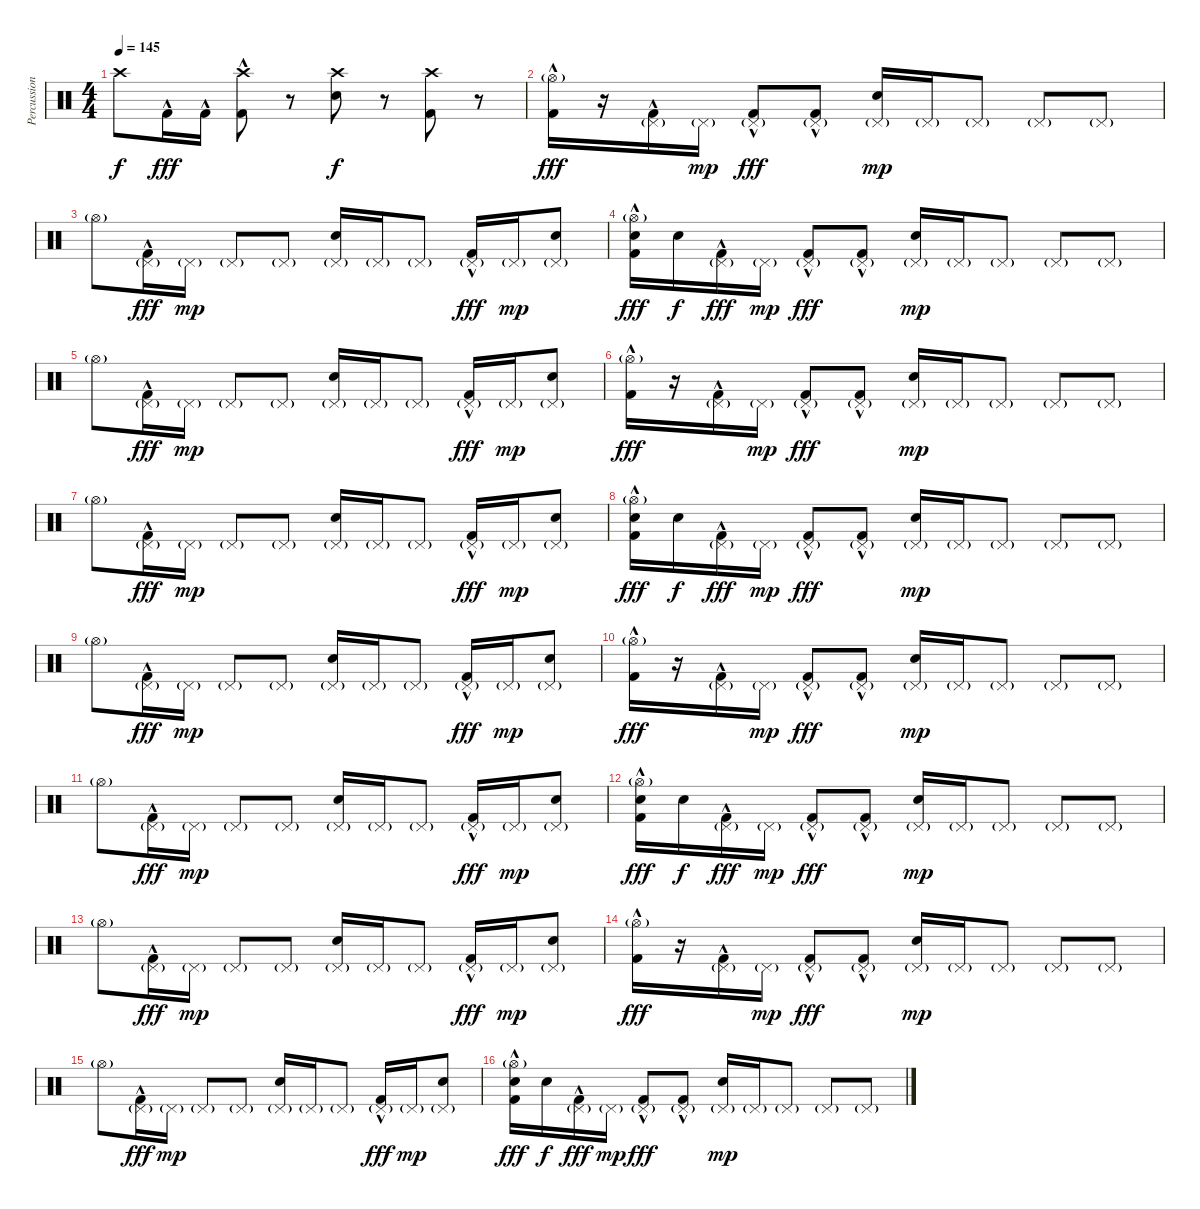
\track ("Percussion" "Percussion") {instrument percussion}
\staff {score}
\articulation defaults
\ts (4 4)
\tempo 145
\clef neutral
\ks c "Crash high (hit)".8{dy f} "Kick (hit) 2"{hac}.16{dy fff} "Kick (hit) 2"{hac}.16
("Crash high (hit)" "Kick (hit) 2"{hac}).8 r.8 ("Crash high (hit)" "Snare (hit) 2").8{dy f} r.8 ("Crash high (hit)" "Kick (hit) 2").8 r.8{volume 0} |
("Hi-Hat (open)"{g} "Kick (hit) 2"{hac}).16{dy fff volume 10} r.16 ("Pedal Hi-Hat (hit)"{g} "Kick (hit) 2"{hac}).16 "Pedal Hi-Hat (hit)"{g}.16{dy mp} ("Pedal Hi-Hat (hit)"{g} "Kick (hit) 2"{hac}).8{dy fff} ("Pedal Hi-Hat (hit)"{g} "Kick (hit) 2"{hac}).8 ("Pedal Hi-Hat (hit)"{g} "Snare (hit) 2").16{dy mp} "Pedal Hi-Hat (hit)"{g}.16 "Pedal Hi-Hat (hit)"{g}.8 "Pedal Hi-Hat (hit)"{g}.8 "Pedal Hi-Hat (hit)"{g}.8 |
"Hi-Hat (open)"{g}.8 ("Pedal Hi-Hat (hit)"{g} "Kick (hit) 2"{hac}).16{dy fff} "Pedal Hi-Hat (hit)"{g}.16{dy mp} "Pedal Hi-Hat (hit)"{g}.8 "Pedal Hi-Hat (hit)"{g}.8 ("Pedal Hi-Hat (hit)"{g} "Snare (hit) 2").16 "Pedal Hi-Hat (hit)"{g}.16 "Pedal Hi-Hat (hit)"{g}.8 ("Pedal Hi-Hat (hit)"{g} "Kick (hit) 2"{hac}).16{dy fff} "Pedal Hi-Hat (hit)"{g}.16{dy mp} ("Pedal Hi-Hat (hit)"{g} "Snare (hit) 2").8 |
("Hi-Hat (open)"{g} "Snare (hit) 2" "Kick (hit) 2"{hac}).16{dy fff} "Snare (hit) 2".16{dy f} ("Pedal Hi-Hat (hit)"{g} "Kick (hit) 2"{hac}).16{dy fff} "Pedal Hi-Hat (hit)"{g}.16{dy mp} ("Pedal Hi-Hat (hit)"{g} "Kick (hit) 2"{hac}).8{dy fff} ("Pedal Hi-Hat (hit)"{g} "Kick (hit) 2"{hac}).8 ("Pedal Hi-Hat (hit)"{g} "Snare (hit) 2").16{dy mp} "Pedal Hi-Hat (hit)"{g}.16 "Pedal Hi-Hat (hit)"{g}.8 "Pedal Hi-Hat (hit)"{g}.8 "Pedal Hi-Hat (hit)"{g}.8 |
"Hi-Hat (open)"{g}.8 ("Pedal Hi-Hat (hit)"{g} "Kick (hit) 2"{hac}).16{dy fff} "Pedal Hi-Hat (hit)"{g}.16{dy mp} "Pedal Hi-Hat (hit)"{g}.8 "Pedal Hi-Hat (hit)"{g}.8 ("Pedal Hi-Hat (hit)"{g} "Snare (hit) 2").16 "Pedal Hi-Hat (hit)"{g}.16 "Pedal Hi-Hat (hit)"{g}.8 ("Pedal Hi-Hat (hit)"{g} "Kick (hit) 2"{hac}).16{dy fff} "Pedal Hi-Hat (hit)"{g}.16{dy mp} ("Pedal Hi-Hat (hit)"{g} "Snare (hit) 2").8 |
("Hi-Hat (open)"{g} "Kick (hit) 2"{hac}).16{dy fff} r.16 ("Pedal Hi-Hat (hit)"{g} "Kick (hit) 2"{hac}).16 "Pedal Hi-Hat (hit)"{g}.16{dy mp} ("Pedal Hi-Hat (hit)"{g} "Kick (hit) 2"{hac}).8{dy fff} ("Pedal Hi-Hat (hit)"{g} "Kick (hit) 2"{hac}).8 ("Pedal Hi-Hat (hit)"{g} "Snare (hit) 2").16{dy mp} "Pedal Hi-Hat (hit)"{g}.16 "Pedal Hi-Hat (hit)"{g}.8 "Pedal Hi-Hat (hit)"{g}.8 "Pedal Hi-Hat (hit)"{g}.8 |
"Hi-Hat (open)"{g}.8 ("Pedal Hi-Hat (hit)"{g} "Kick (hit) 2"{hac}).16{dy fff} "Pedal Hi-Hat (hit)"{g}.16{dy mp} "Pedal Hi-Hat (hit)"{g}.8 "Pedal Hi-Hat (hit)"{g}.8 ("Pedal Hi-Hat (hit)"{g} "Snare (hit) 2").16 "Pedal Hi-Hat (hit)"{g}.16 "Pedal Hi-Hat (hit)"{g}.8 ("Pedal Hi-Hat (hit)"{g} "Kick (hit) 2"{hac}).16{dy fff} "Pedal Hi-Hat (hit)"{g}.16{dy mp} ("Pedal Hi-Hat (hit)"{g} "Snare (hit) 2").8 |
("Hi-Hat (open)"{g} "Snare (hit) 2" "Kick (hit) 2"{hac}).16{dy fff} "Snare (hit) 2".16{dy f} ("Pedal Hi-Hat (hit)"{g} "Kick (hit) 2"{hac}).16{dy fff} "Pedal Hi-Hat (hit)"{g}.16{dy mp} ("Pedal Hi-Hat (hit)"{g} "Kick (hit) 2"{hac}).8{dy fff} ("Pedal Hi-Hat (hit)"{g} "Kick (hit) 2"{hac}).8 ("Pedal Hi-Hat (hit)"{g} "Snare (hit) 2").16{dy mp} "Pedal Hi-Hat (hit)"{g}.16 "Pedal Hi-Hat (hit)"{g}.8 "Pedal Hi-Hat (hit)"{g}.8 "Pedal Hi-Hat (hit)"{g}.8 |
"Hi-Hat (open)"{g}.8 ("Pedal Hi-Hat (hit)"{g} "Kick (hit) 2"{hac}).16{dy fff} "Pedal Hi-Hat (hit)"{g}.16{dy mp} "Pedal Hi-Hat (hit)"{g}.8 "Pedal Hi-Hat (hit)"{g}.8 ("Pedal Hi-Hat (hit)"{g} "Snare (hit) 2").16 "Pedal Hi-Hat (hit)"{g}.16 "Pedal Hi-Hat (hit)"{g}.8 ("Pedal Hi-Hat (hit)"{g} "Kick (hit) 2"{hac}).16{dy fff} "Pedal Hi-Hat (hit)"{g}.16{dy mp} ("Pedal Hi-Hat (hit)"{g} "Snare (hit) 2").8 |
("Hi-Hat (open)"{g} "Kick (hit) 2"{hac}).16{dy fff} r.16 ("Pedal Hi-Hat (hit)"{g} "Kick (hit) 2"{hac}).16 "Pedal Hi-Hat (hit)"{g}.16{dy mp} ("Pedal Hi-Hat (hit)"{g} "Kick (hit) 2"{hac}).8{dy fff} ("Pedal Hi-Hat (hit)"{g} "Kick (hit) 2"{hac}).8 ("Pedal Hi-Hat (hit)"{g} "Snare (hit) 2").16{dy mp} "Pedal Hi-Hat (hit)"{g}.16 "Pedal Hi-Hat (hit)"{g}.8 "Pedal Hi-Hat (hit)"{g}.8 "Pedal Hi-Hat (hit)"{g}.8 |
"Hi-Hat (open)"{g}.8 ("Pedal Hi-Hat (hit)"{g} "Kick (hit) 2"{hac}).16{dy fff} "Pedal Hi-Hat (hit)"{g}.16{dy mp} "Pedal Hi-Hat (hit)"{g}.8 "Pedal Hi-Hat (hit)"{g}.8 ("Pedal Hi-Hat (hit)"{g} "Snare (hit) 2").16 "Pedal Hi-Hat (hit)"{g}.16 "Pedal Hi-Hat (hit)"{g}.8 ("Pedal Hi-Hat (hit)"{g} "Kick (hit) 2"{hac}).16{dy fff} "Pedal Hi-Hat (hit)"{g}.16{dy mp} ("Pedal Hi-Hat (hit)"{g} "Snare (hit) 2").8 |
("Hi-Hat (open)"{g} "Snare (hit) 2" "Kick (hit) 2"{hac}).16{dy fff} "Snare (hit) 2".16{dy f} ("Pedal Hi-Hat (hit)"{g} "Kick (hit) 2"{hac}).16{dy fff} "Pedal Hi-Hat (hit)"{g}.16{dy mp} ("Pedal Hi-Hat (hit)"{g} "Kick (hit) 2"{hac}).8{dy fff} ("Pedal Hi-Hat (hit)"{g} "Kick (hit) 2"{hac}).8 ("Pedal Hi-Hat (hit)"{g} "Snare (hit) 2").16{dy mp} "Pedal Hi-Hat (hit)"{g}.16 "Pedal Hi-Hat (hit)"{g}.8 "Pedal Hi-Hat (hit)"{g}.8 "Pedal Hi-Hat (hit)"{g}.8 |
"Hi-Hat (open)"{g}.8 ("Pedal Hi-Hat (hit)"{g} "Kick (hit) 2"{hac}).16{dy fff} "Pedal Hi-Hat (hit)"{g}.16{dy mp} "Pedal Hi-Hat (hit)"{g}.8 "Pedal Hi-Hat (hit)"{g}.8 ("Pedal Hi-Hat (hit)"{g} "Snare (hit) 2").16 "Pedal Hi-Hat (hit)"{g}.16 "Pedal Hi-Hat (hit)"{g}.8 ("Pedal Hi-Hat (hit)"{g} "Kick (hit) 2"{hac}).16{dy fff} "Pedal Hi-Hat (hit)"{g}.16{dy mp} ("Pedal Hi-Hat (hit)"{g} "Snare (hit) 2").8 |
("Hi-Hat (open)"{g} "Kick (hit) 2"{hac}).16{dy fff} r.16 ("Pedal Hi-Hat (hit)"{g} "Kick (hit) 2"{hac}).16 "Pedal Hi-Hat (hit)"{g}.16{dy mp} ("Pedal Hi-Hat (hit)"{g} "Kick (hit) 2"{hac}).8{dy fff} ("Pedal Hi-Hat (hit)"{g} "Kick (hit) 2"{hac}).8 ("Pedal Hi-Hat (hit)"{g} "Snare (hit) 2").16{dy mp} "Pedal Hi-Hat (hit)"{g}.16 "Pedal Hi-Hat (hit)"{g}.8 "Pedal Hi-Hat (hit)"{g}.8 "Pedal Hi-Hat (hit)"{g}.8 |
"Hi-Hat (open)"{g}.8 ("Pedal Hi-Hat (hit)"{g} "Kick (hit) 2"{hac}).16{dy fff} "Pedal Hi-Hat (hit)"{g}.16{dy mp} "Pedal Hi-Hat (hit)"{g}.8 "Pedal Hi-Hat (hit)"{g}.8 ("Pedal Hi-Hat (hit)"{g} "Snare (hit) 2").16 "Pedal Hi-Hat (hit)"{g}.16 "Pedal Hi-Hat (hit)"{g}.8 ("Pedal Hi-Hat (hit)"{g} "Kick (hit) 2"{hac}).16{dy fff} "Pedal Hi-Hat (hit)"{g}.16{dy mp} ("Pedal Hi-Hat (hit)"{g} "Snare (hit) 2").8 |
("Hi-Hat (open)"{g} "Snare (hit) 2" "Kick (hit) 2"{hac}).16{dy fff} "Snare (hit) 2".16{dy f} ("Pedal Hi-Hat (hit)"{g} "Kick (hit) 2"{hac}).16{dy fff} "Pedal Hi-Hat (hit)"{g}.16{dy mp} ("Pedal Hi-Hat (hit)"{g} "Kick (hit) 2"{hac}).8{dy fff} ("Pedal Hi-Hat (hit)"{g} "Kick (hit) 2"{hac}).8 ("Pedal Hi-Hat (hit)"{g} "Snare (hit) 2").16{dy mp} "Pedal Hi-Hat (hit)"{g}.16 "Pedal Hi-Hat (hit)"{g}.8 "Pedal Hi-Hat (hit)"{g}.8 "Pedal Hi-Hat (hit)"{g}.8
